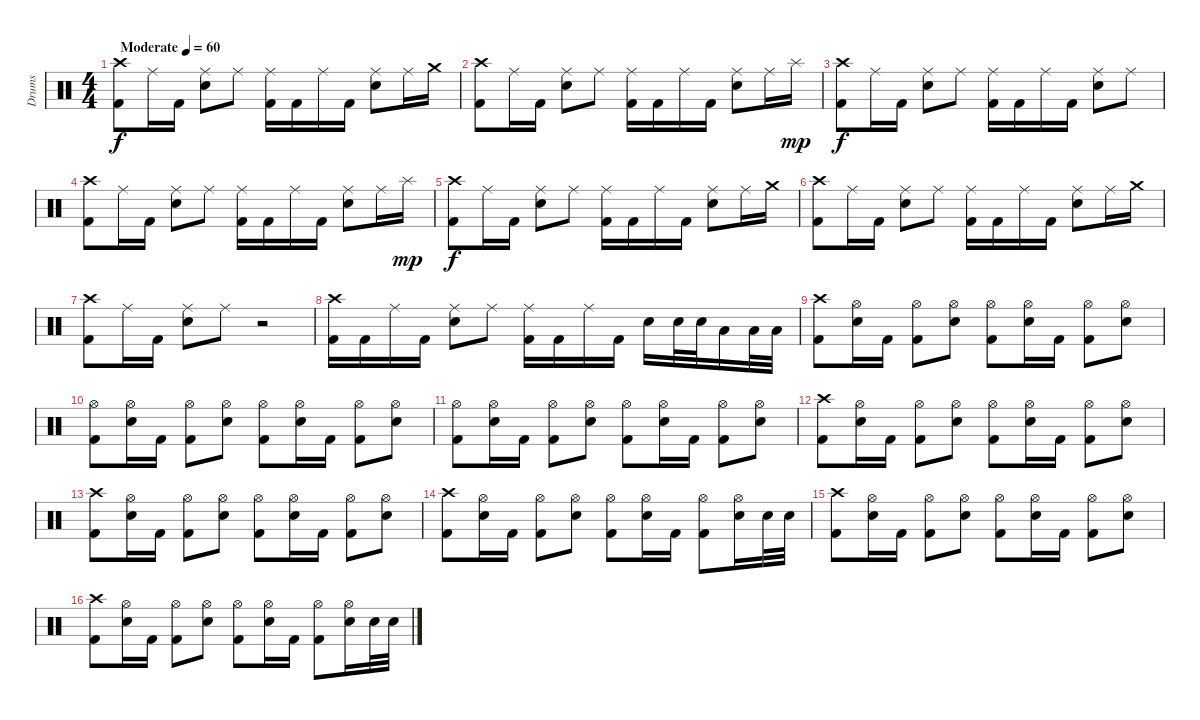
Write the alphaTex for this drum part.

\track ("Drums" "Drums") {instrument percussion}
\staff {score}
\articulation defaults
\ts (4 4)
\tempo (60 "Moderate")
\clef neutral
\ks c
("Crash high (hit)" "Kick (hit) 2").8{dy f} "Ride (middle)".16 "Kick (hit) 2".16 ("Ride (middle)" "Electric Snare (hit)").8 "Ride (middle)".8 ("Ride (middle)" "Kick (hit) 2").16 "Kick (hit) 2".16 "Ride (middle)".16 "Kick (hit) 2".16 ("Ride (middle)" "Electric Snare (hit)").8 "Ride (middle)".16 "Crash medium (hit)".16 |
("Crash high (hit)" "Kick (hit) 2").8 "Ride (middle)".16 "Kick (hit) 2".16 ("Ride (middle)" "Electric Snare (hit)").8 "Ride (middle)".8 ("Ride (middle)" "Kick (hit) 2").16 "Kick (hit) 2".16 "Ride (middle)".16 "Kick (hit) 2".16 ("Ride (middle)" "Electric Snare (hit)").8 "Ride (middle)".16 "Splash (hit)".16{dy mp} |
("Crash high (hit)" "Kick (hit) 2").8{dy f} "Ride (middle)".16 "Kick (hit) 2".16 ("Ride (middle)" "Electric Snare (hit)").8 "Ride (middle)".8 ("Ride (middle)" "Kick (hit) 2").16 "Kick (hit) 2".16 "Ride (middle)".16 "Kick (hit) 2".16 ("Ride (middle)" "Electric Snare (hit)").8 "Ride (middle)".8 |
("Crash high (hit)" "Kick (hit) 2").8 "Ride (middle)".16 "Kick (hit) 2".16 ("Ride (middle)" "Electric Snare (hit)").8 "Ride (middle)".8 ("Ride (middle)" "Kick (hit) 2").16 "Kick (hit) 2".16 "Ride (middle)".16 "Kick (hit) 2".16 ("Ride (middle)" "Electric Snare (hit)").8 "Ride (middle)".16 "Splash (hit)".16{dy mp} |
("Crash high (hit)" "Kick (hit) 2").8{dy f} "Ride (middle)".16 "Kick (hit) 2".16 ("Ride (middle)" "Electric Snare (hit)").8 "Ride (middle)".8 ("Ride (middle)" "Kick (hit) 2").16 "Kick (hit) 2".16 "Ride (middle)".16 "Kick (hit) 2".16 ("Ride (middle)" "Electric Snare (hit)").8 "Ride (middle)".16 "Crash medium (hit)".16 |
("Crash high (hit)" "Kick (hit) 2").8 "Ride (middle)".16 "Kick (hit) 2".16 ("Ride (middle)" "Electric Snare (hit)").8 "Ride (middle)".8 ("Ride (middle)" "Kick (hit) 2").16 "Kick (hit) 2".16 "Ride (middle)".16 "Kick (hit) 2".16 ("Ride (middle)" "Electric Snare (hit)").8 "Ride (middle)".16 "Crash medium (hit)".16 |
("Crash high (hit)" "Kick (hit) 2").8 "Ride (middle)".16 "Kick (hit) 2".16 ("Ride (middle)" "Electric Snare (hit)").8 "Ride (middle)".8 r.2 |
("Crash high (hit)" "Kick (hit) 2").16 "Kick (hit) 2".16 "Ride (middle)".16 "Kick (hit) 2".16 ("Ride (middle)" "Electric Snare (hit)").8 "Ride (middle)".8 ("Ride (middle)" "Kick (hit) 2").16 "Kick (hit) 2".16 "Ride (middle)".16 "Kick (hit) 2".16 "Electric Snare (hit)".16 "Electric Snare (hit)".32 "Electric Snare (hit)".32 "Low Tom (hit)".16 "Low Tom (hit)".32 "Low Tom (hit)".32 |
("Crash high (hit)" "Kick (hit) 2").8 ("Hi-Hat (open)" "Electric Snare (hit)").16 "Kick (hit) 2".16 ("Hi-Hat (open)" "Kick (hit) 2").8 ("Hi-Hat (open)" "Electric Snare (hit)").8 ("Hi-Hat (open)" "Kick (hit) 2").8 ("Hi-Hat (open)" "Electric Snare (hit)").16 "Kick (hit) 2".16 ("Hi-Hat (open)" "Kick (hit) 2").8 ("Hi-Hat (open)" "Electric Snare (hit)").8 |
("Hi-Hat (open)" "Kick (hit) 2").8 ("Hi-Hat (open)" "Electric Snare (hit)").16 "Kick (hit) 2".16 ("Hi-Hat (open)" "Kick (hit) 2").8 ("Hi-Hat (open)" "Electric Snare (hit)").8 ("Hi-Hat (open)" "Kick (hit) 2").8 ("Hi-Hat (open)" "Electric Snare (hit)").16 "Kick (hit) 2".16 ("Hi-Hat (open)" "Kick (hit) 2").8 ("Hi-Hat (open)" "Electric Snare (hit)").8 |
("Hi-Hat (open)" "Kick (hit) 2").8 ("Hi-Hat (open)" "Electric Snare (hit)").16 "Kick (hit) 2".16 ("Hi-Hat (open)" "Kick (hit) 2").8 ("Hi-Hat (open)" "Electric Snare (hit)").8 ("Hi-Hat (open)" "Kick (hit) 2").8 ("Hi-Hat (open)" "Electric Snare (hit)").16 "Kick (hit) 2".16 ("Hi-Hat (open)" "Kick (hit) 2").8 ("Hi-Hat (open)" "Electric Snare (hit)").8 |
("Crash high (hit)" "Kick (hit) 2").8 ("Hi-Hat (open)" "Electric Snare (hit)").16 "Kick (hit) 2".16 ("Hi-Hat (open)" "Kick (hit) 2").8 ("Hi-Hat (open)" "Electric Snare (hit)").8 ("Hi-Hat (open)" "Kick (hit) 2").8 ("Hi-Hat (open)" "Electric Snare (hit)").16 "Kick (hit) 2".16 ("Hi-Hat (open)" "Kick (hit) 2").8 ("Hi-Hat (open)" "Electric Snare (hit)").8 |
("Crash high (hit)" "Kick (hit) 2").8 ("Hi-Hat (open)" "Electric Snare (hit)").16 "Kick (hit) 2".16 ("Hi-Hat (open)" "Kick (hit) 2").8 ("Hi-Hat (open)" "Electric Snare (hit)").8 ("Hi-Hat (open)" "Kick (hit) 2").8 ("Hi-Hat (open)" "Electric Snare (hit)").16 "Kick (hit) 2".16 ("Hi-Hat (open)" "Kick (hit) 2").8 ("Hi-Hat (open)" "Electric Snare (hit)").8 |
("Crash high (hit)" "Kick (hit) 2").8 ("Hi-Hat (open)" "Electric Snare (hit)").16 "Kick (hit) 2".16 ("Hi-Hat (open)" "Kick (hit) 2").8 ("Hi-Hat (open)" "Electric Snare (hit)").8 ("Hi-Hat (open)" "Kick (hit) 2").8 ("Hi-Hat (open)" "Electric Snare (hit)").16 "Kick (hit) 2".16 ("Hi-Hat (open)" "Kick (hit) 2").8 ("Hi-Hat (open)" "Electric Snare (hit)").16 "Electric Snare (hit)".32 "Electric Snare (hit)".32 |
("Crash high (hit)" "Kick (hit) 2").8 ("Hi-Hat (open)" "Electric Snare (hit)").16 "Kick (hit) 2".16 ("Hi-Hat (open)" "Kick (hit) 2").8 ("Hi-Hat (open)" "Electric Snare (hit)").8 ("Hi-Hat (open)" "Kick (hit) 2").8 ("Hi-Hat (open)" "Electric Snare (hit)").16 "Kick (hit) 2".16 ("Hi-Hat (open)" "Kick (hit) 2").8 ("Hi-Hat (open)" "Electric Snare (hit)").8 |
("Crash high (hit)" "Kick (hit) 2").8 ("Hi-Hat (open)" "Electric Snare (hit)").16 "Kick (hit) 2".16 ("Hi-Hat (open)" "Kick (hit) 2").8 ("Hi-Hat (open)" "Electric Snare (hit)").8 ("Hi-Hat (open)" "Kick (hit) 2").8 ("Hi-Hat (open)" "Electric Snare (hit)").16 "Kick (hit) 2".16 ("Hi-Hat (open)" "Kick (hit) 2").8 ("Hi-Hat (open)" "Electric Snare (hit)").16 "Electric Snare (hit)".32 "Electric Snare (hit)".32
